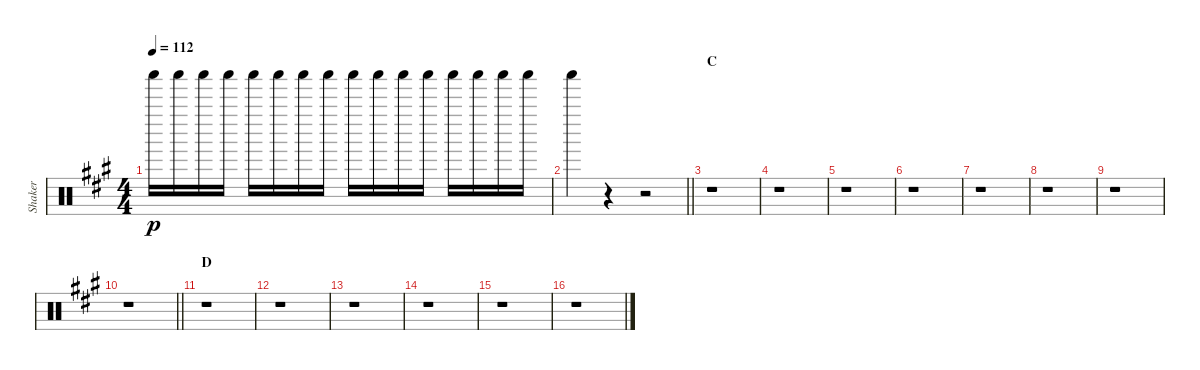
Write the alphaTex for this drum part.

\track ("Shaker" "Shaker") {instrument percussion}
\staff {score}
\articulation defaults
\ts (4 4)
\tempo 112
\clef neutral
\ks a "Shaker (hit)".16{dy p} "Shaker (hit)".16 "Shaker (hit)".16 "Shaker (hit)".16 "Shaker (hit)".16 "Shaker (hit)".16 "Shaker (hit)".16 "Shaker (hit)".16 "Shaker (hit)".16 "Shaker (hit)".16 "Shaker (hit)".16 "Shaker (hit)".16 "Shaker (hit)".16 "Shaker (hit)".16 "Shaker (hit)".16 "Shaker (hit)".16
|
\barLineRight lightlight "Shaker (hit)".4
r.4 r.2 |
\section ("" "C")
r.1 |
r.1 |
r.1 |
r.1 |
r.1 |
r.1 |
r.1 |
\barLineRight lightlight
r.1 |
\section ("" "D")
r.1 |
r.1 |
r.1 |
r.1 |
r.1 |
r.1
